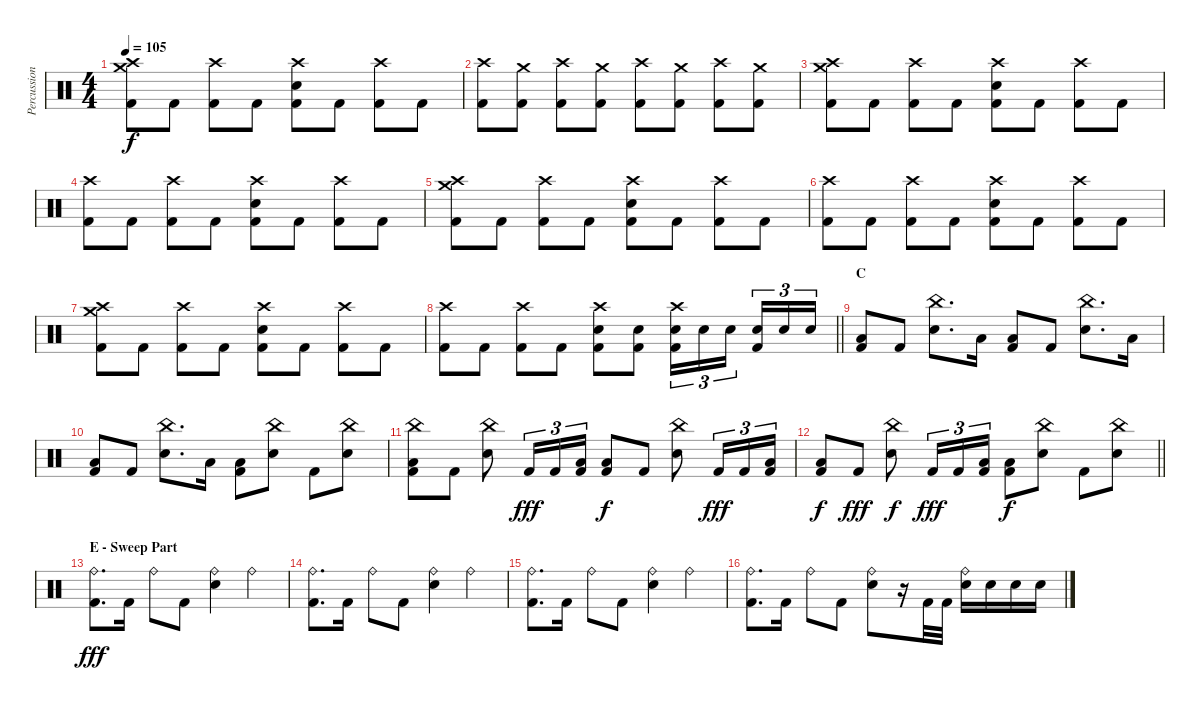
\track ("Percussions" "Percussion") {instrument percussion}
\staff {score}
\articulation defaults
\ts (4 4)
\tempo 105
\clef neutral
\ks c
("Crash medium (hit)" "Crash high (hit)" "Kick (hit) 2").8{dy f} "Kick (hit) 2".8 ("Crash high (hit)" "Kick (hit) 2").8 "Kick (hit) 2".8 ("Crash high (hit)" "Snare (hit) 2" "Kick (hit) 2").8 "Kick (hit) 2".8 ("Crash high (hit)" "Kick (hit) 2").8 "Kick (hit) 2".8 |
("Crash high (hit)" "Kick (hit) 2").8 ("Crash medium (hit)" "Kick (hit) 2").8 ("Crash high (hit)" "Kick (hit) 2").8 ("Crash medium (hit)" "Kick (hit) 2").8 ("Crash high (hit)" "Kick (hit) 2").8 ("Crash medium (hit)" "Kick (hit) 2").8 ("Crash high (hit)" "Kick (hit) 2").8 ("Crash medium (hit)" "Kick (hit) 2").8 |
("Crash medium (hit)" "Crash high (hit)" "Kick (hit) 2").8 "Kick (hit) 2".8 ("Crash high (hit)" "Kick (hit) 2").8 "Kick (hit) 2".8 ("Crash high (hit)" "Snare (hit) 2" "Kick (hit) 2").8 "Kick (hit) 2".8 ("Crash high (hit)" "Kick (hit) 2").8 "Kick (hit) 2".8 |
("Crash high (hit)" "Kick (hit) 2").8 "Kick (hit) 2".8 ("Crash high (hit)" "Kick (hit) 2").8 "Kick (hit) 2".8 ("Crash high (hit)" "Snare (hit) 2" "Kick (hit) 2").8 "Kick (hit) 2".8 ("Crash high (hit)" "Kick (hit) 2").8 "Kick (hit) 2".8 |
("Crash medium (hit)" "Crash high (hit)" "Kick (hit) 2").8 "Kick (hit) 2".8 ("Crash high (hit)" "Kick (hit) 2").8 "Kick (hit) 2".8 ("Crash high (hit)" "Snare (hit) 2" "Kick (hit) 2").8 "Kick (hit) 2".8 ("Crash high (hit)" "Kick (hit) 2").8 "Kick (hit) 2".8 |
("Crash high (hit)" "Kick (hit) 2").8 "Kick (hit) 2".8 ("Crash high (hit)" "Kick (hit) 2").8 "Kick (hit) 2".8 ("Crash high (hit)" "Snare (hit) 2" "Kick (hit) 2").8 "Kick (hit) 2".8 ("Crash high (hit)" "Kick (hit) 2").8 "Kick (hit) 2".8 |
("Crash medium (hit)" "Crash high (hit)" "Kick (hit) 2").8 "Kick (hit) 2".8 ("Crash high (hit)" "Kick (hit) 2").8 "Kick (hit) 2".8 ("Crash high (hit)" "Snare (hit) 2" "Kick (hit) 2").8 "Kick (hit) 2".8 ("Crash high (hit)" "Kick (hit) 2").8 "Kick (hit) 2".8 |
\barLineRight lightlight
("Crash high (hit)" "Kick (hit) 2").8 "Kick (hit) 2".8 ("Crash high (hit)" "Kick (hit) 2").8 "Kick (hit) 2".8 ("Crash high (hit)" "Snare (hit) 2" "Kick (hit) 2").8 ("Snare (hit) 2" "Kick (hit) 2").8 ("Crash high (hit)" "Snare (hit) 2" "Kick (hit) 2").16{tu (3 2)} "Snare (hit) 2".16{tu (3 2)} "Snare (hit) 2".16{tu (3 2) beam splitsecondary} ("Snare (hit) 2" "Kick (hit) 2").16{tu (3 2)} "Snare (hit) 2".16{tu (3 2)} "Snare (hit) 2".16{tu (3 2)} |
\section ("" "C")
("Low Tom (hit)" "Kick (hit) 2").8 "Kick (hit) 2".8 ("China (hit)" "Snare (hit) 2").8{d} "Low Tom (hit)".16 ("Low Tom (hit)" "Kick (hit) 2").8 "Kick (hit) 2".8 ("China (hit)" "Snare (hit) 2").8{d} "Low Tom (hit)".16 |
("Low Tom (hit)" "Kick (hit) 2").8 "Kick (hit) 2".8 ("China (hit)" "Snare (hit) 2").8{d} "Low Tom (hit)".16 ("Low Tom (hit)" "Kick (hit) 2").8 ("China (hit)" "Snare (hit) 2").8 "Kick (hit) 2".8 ("China (hit)" "Snare (hit) 2").8 |
("China (hit)" "Low Tom (hit)" "Kick (hit) 2").8 "Kick (hit) 2".8 ("China (hit)" "Snare (hit) 2").8 "Kick (hit) 2".16{tu (3 2) dy fff} "Kick (hit) 2".16{tu (3 2)} ("Low Tom (hit)" "Kick (hit) 2").16{tu (3 2)} ("Low Tom (hit)" "Kick (hit) 2").8{dy f} "Kick (hit) 2".8 ("China (hit)" "Snare (hit) 2").8 "Kick (hit) 2".16{tu (3 2) dy fff} "Kick (hit) 2".16{tu (3 2)} ("Low Tom (hit)" "Kick (hit) 2").16{tu (3 2)} |
\barLineRight lightlight
("Low Tom (hit)" "Kick (hit) 2").8{dy f} "Kick (hit) 2".8{dy fff} ("China (hit)" "Snare (hit) 2").8{dy f} "Kick (hit) 2".16{tu (3 2) dy fff} "Kick (hit) 2".16{tu (3 2)} ("Low Tom (hit)" "Kick (hit) 2").16{tu (3 2)} ("Low Tom (hit)" "Kick (hit) 2").8{dy f} ("China (hit)" "Snare (hit) 2").8 "Kick (hit) 2".8 ("China (hit)" "Snare (hit) 2").8 |
\section ("" "E - Sweep Part")
("Ride (bell)" "Kick (hit) 2").8{d dy fff} "Kick (hit) 2".16 "Ride (bell)".8 "Kick (hit) 2".8 ("Ride (bell)" "Snare (hit) 2").4 "Ride (bell)".4 |
("Ride (bell)" "Kick (hit) 2").8{d} "Kick (hit) 2".16 "Ride (bell)".8 "Kick (hit) 2".8 ("Ride (bell)" "Snare (hit) 2").4 "Ride (bell)".4 |
("Ride (bell)" "Kick (hit) 2").8{d} "Kick (hit) 2".16 "Ride (bell)".8 "Kick (hit) 2".8 ("Ride (bell)" "Snare (hit) 2").4 "Ride (bell)".4 |
("Ride (bell)" "Kick (hit) 2").8{d} "Kick (hit) 2".16 "Ride (bell)".8 "Kick (hit) 2".8 ("Ride (bell)" "Snare (hit) 2").8 r.16 "Kick (hit) 2".32 "Kick (hit) 2".32 ("Ride (bell)" "Snare (hit) 2").16 "Snare (hit) 2".16 "Snare (hit) 2".16 "Snare (hit) 2".16
